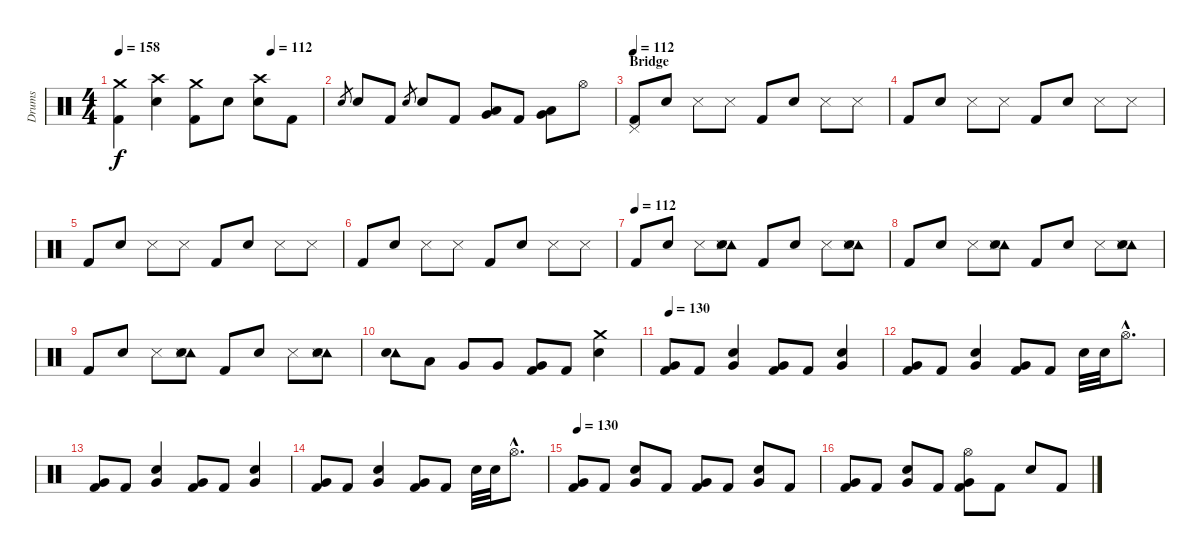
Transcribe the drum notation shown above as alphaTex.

\track ("Drums" "Drums") {instrument percussion}
\staff {score}
\articulation defaults
\ts (4 4)
\tempo 158
\tempo (112 0.75)
\clef neutral
\ks c
("Crash medium (hit)" "Kick (hit) 2").4{dy f} ("Crash high (hit)" "Snare (hit) 2").4 ("Crash medium (hit)" "Kick (hit) 2").8 "Snare (hit) 2".8 ("Crash high (hit)" "Snare (hit) 2").8 "Kick (hit) 2".8 |
"Snare (hit) 2".8{gr} "Snare (hit) 2".8 "Kick (hit) 2".8 "Snare (hit) 2".8{gr} "Snare (hit) 2".8 "Kick (hit) 2".8 ("Low Tom (hit)" "Very Low Tom (hit)").8 "Kick (hit) 2".8 ("Low Tom (hit)" "Very Low Tom (hit)").8 "Hi-Hat (open)".8 |
\section ("" "Bridge")
\tempo 112
("Pedal Hi-Hat (hit)" "Kick (hit) 2").8 "Snare (hit) 2".8 "Snare (side stick) 3".8 "Snare (side stick) 3".8 "Kick (hit) 2".8 "Snare (hit) 2".8 "Snare (side stick) 3".8 "Snare (side stick) 3".8 |
"Kick (hit) 2".8 "Snare (hit) 2".8 "Snare (side stick) 3".8 "Snare (side stick) 3".8 "Kick (hit) 2".8 "Snare (hit) 2".8 "Snare (side stick) 3".8 "Snare (side stick) 3".8 |
"Kick (hit) 2".8 "Snare (hit) 2".8 "Snare (side stick) 3".8 "Snare (side stick) 3".8 "Kick (hit) 2".8 "Snare (hit) 2".8 "Snare (side stick) 3".8 "Snare (side stick) 3".8 |
"Kick (hit) 2".8 "Snare (hit) 2".8 "Snare (side stick) 3".8 "Snare (side stick) 3".8 "Kick (hit) 2".8 "Snare (hit) 2".8 "Snare (side stick) 3".8 "Snare (side stick) 3".8 |
\tempo (112)
"Kick (hit) 2".8 "Snare (hit) 2".8 "Snare (side stick) 3".8 ("Tambourine (hit)" "Snare (side stick) 3" "Snare (hit) 2").8 "Kick (hit) 2".8 "Snare (hit) 2".8 "Snare (side stick) 3".8 ("Tambourine (hit)" "Snare (side stick) 3" "Snare (hit) 2").8 |
"Kick (hit) 2".8 "Snare (hit) 2".8 "Snare (side stick) 3".8 ("Tambourine (hit)" "Snare (side stick) 3" "Snare (hit) 2").8 "Kick (hit) 2".8 "Snare (hit) 2".8 "Snare (side stick) 3".8 ("Tambourine (hit)" "Snare (side stick) 3" "Snare (hit) 2").8 |
"Kick (hit) 2".8 "Snare (hit) 2".8 "Snare (side stick) 3".8 ("Tambourine (hit)" "Snare (side stick) 3" "Snare (hit) 2").8 "Kick (hit) 2".8 "Snare (hit) 2".8 "Snare (side stick) 3".8 ("Tambourine (hit)" "Snare (side stick) 3" "Snare (hit) 2").8 |
("Tambourine (hit)" "Snare (hit) 2").8 "Low Tom (hit)".8 "Very Low Tom (hit)".8 "Very Low Tom (hit)".8 ("Very Low Tom (hit)" "Kick (hit) 2").8 "Kick (hit) 2".8 ("Crash medium (hit)" "Snare (hit) 2").4 |
\tempo 130
("Very Low Tom (hit)" "Kick (hit) 2").8 "Kick (hit) 2".8 ("Snare (hit) 2" "Very Low Tom (hit)").4 ("Very Low Tom (hit)" "Kick (hit) 2").8 "Kick (hit) 2".8 ("Snare (hit) 2" "Very Low Tom (hit)").4 |
("Very Low Tom (hit)" "Kick (hit) 2").8 "Kick (hit) 2".8 ("Snare (hit) 2" "Very Low Tom (hit)").4 ("Very Low Tom (hit)" "Kick (hit) 2").8 "Kick (hit) 2".8 "Snare (hit) 2".32 "Snare (hit) 2".32 "Hi-Hat (open)"{hac}.8{d} |
("Very Low Tom (hit)" "Kick (hit) 2").8 "Kick (hit) 2".8 ("Snare (hit) 2" "Very Low Tom (hit)").4 ("Very Low Tom (hit)" "Kick (hit) 2").8 "Kick (hit) 2".8 ("Snare (hit) 2" "Very Low Tom (hit)").4 |
("Very Low Tom (hit)" "Kick (hit) 2").8 "Kick (hit) 2".8 ("Snare (hit) 2" "Very Low Tom (hit)").4 ("Very Low Tom (hit)" "Kick (hit) 2").8 "Kick (hit) 2".8 "Snare (hit) 2".32 "Snare (hit) 2".32 "Hi-Hat (open)"{hac}.8{d} |
\tempo 130
("Very Low Tom (hit)" "Kick (hit) 2").8 "Kick (hit) 2".8 ("Snare (hit) 2" "Very Low Tom (hit)").8 "Kick (hit) 2".8 ("Very Low Tom (hit)" "Kick (hit) 2").8 "Kick (hit) 2".8 ("Snare (hit) 2" "Very Low Tom (hit)").8 "Kick (hit) 2".8 |
("Very Low Tom (hit)" "Kick (hit) 2").8 "Kick (hit) 2".8 ("Snare (hit) 2" "Very Low Tom (hit)").8 "Kick (hit) 2".8 ("Hi-Hat (open)" "Very Low Tom (hit)" "Kick (hit) 2").8 "Kick (hit) 2".8 "Snare (hit) 2".8 "Kick (hit) 2".8
